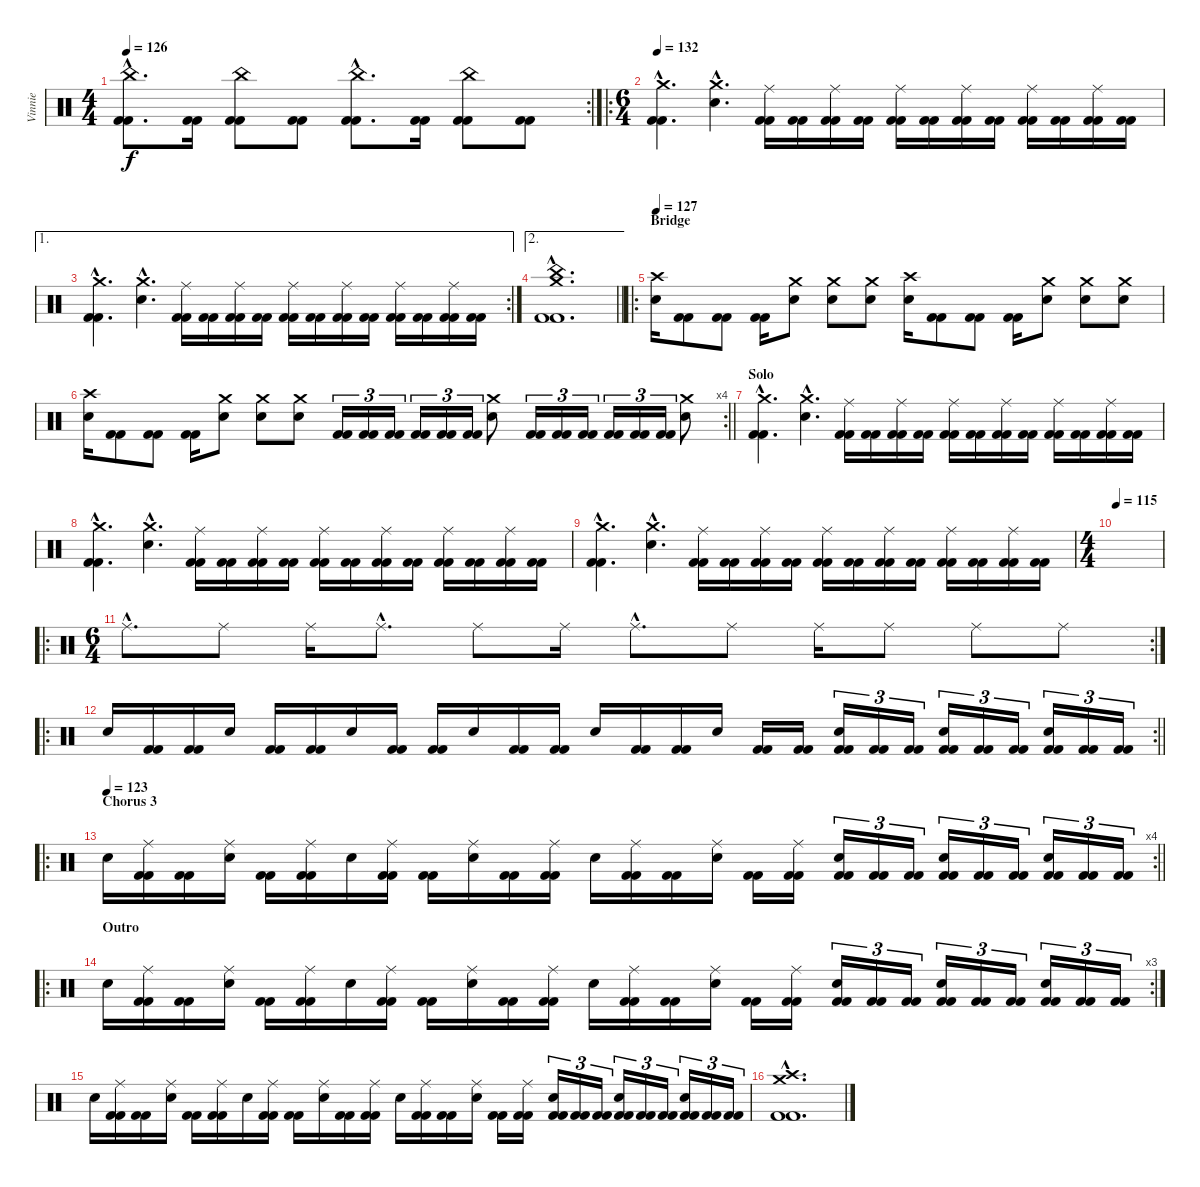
\track ("Vinnie" "Vinnie") {instrument percussion}
\staff {score}
\articulation defaults
\rc 2
\ts (4 4)
\tempo 126
\clef neutral
\ks c
("China (hit)"{hac} "Kick (hit) 2"{hac} "Kick (hit) 2"{hac}).8{d dy f} ("Kick (hit) 2" "Kick (hit) 2").16 ("China (hit)" "Kick (hit) 2" "Kick (hit) 2").8 ("Kick (hit) 2" "Kick (hit) 2").8 ("China (hit)"{hac} "Kick (hit) 2"{hac} "Kick (hit) 2"{hac}).8{d} ("Kick (hit) 2" "Kick (hit) 2").16 ("China (hit)" "Kick (hit) 2" "Kick (hit) 2").8 ("Kick (hit) 2" "Kick (hit) 2").8 |
\ro
\ts (6 4)
\tempo 132
("Crash medium (hit)"{hac} "Kick (hit) 2"{hac} "Kick (hit) 2"{hac}).4{d} ("Crash medium (hit)"{hac} "Snare (hit) 2"{hac}).4{d} ("Ride (middle)" "Kick (hit) 2" "Kick (hit) 2").16 ("Kick (hit) 2" "Kick (hit) 2").16 ("Ride (middle)" "Kick (hit) 2" "Kick (hit) 2").16 ("Kick (hit) 2" "Kick (hit) 2").16 ("Ride (middle)" "Kick (hit) 2" "Kick (hit) 2").16 ("Kick (hit) 2" "Kick (hit) 2").16 ("Ride (middle)" "Kick (hit) 2" "Kick (hit) 2").16 ("Kick (hit) 2" "Kick (hit) 2").16 ("Ride (middle)" "Kick (hit) 2" "Kick (hit) 2").16 ("Kick (hit) 2" "Kick (hit) 2").16 ("Ride (middle)" "Kick (hit) 2" "Kick (hit) 2").16 ("Kick (hit) 2" "Kick (hit) 2").16 |
\ae 1
\rc 2
("Crash medium (hit)"{hac} "Kick (hit) 2"{hac} "Kick (hit) 2"{hac}).4{d} ("Crash medium (hit)"{hac} "Snare (hit) 2"{hac}).4{d} ("Ride (middle)" "Kick (hit) 2" "Kick (hit) 2").16 ("Kick (hit) 2" "Kick (hit) 2").16 ("Ride (middle)" "Kick (hit) 2" "Kick (hit) 2").16 ("Kick (hit) 2" "Kick (hit) 2").16 ("Ride (middle)" "Kick (hit) 2" "Kick (hit) 2").16 ("Kick (hit) 2" "Kick (hit) 2").16 ("Ride (middle)" "Kick (hit) 2" "Kick (hit) 2").16 ("Kick (hit) 2" "Kick (hit) 2").16 ("Ride (middle)" "Kick (hit) 2" "Kick (hit) 2").16 ("Kick (hit) 2" "Kick (hit) 2").16 ("Ride (middle)" "Kick (hit) 2" "Kick (hit) 2").16 ("Kick (hit) 2" "Kick (hit) 2").16 |
\ae 2
\barLineRight lightlight
("China (hit)"{hac} "Crash medium (hit)"{hac} "Kick (hit) 2"{hac} "Kick (hit) 2"{hac}).1{d} |
\ro
\section ("" "Bridge")
\tempo 127
("Crash high (hit)" "Snare (hit) 2").16 ("Kick (hit) 2" "Kick (hit) 2").8 ("Kick (hit) 2" "Kick (hit) 2").8 ("Kick (hit) 2" "Kick (hit) 2").16 ("Crash medium (hit)" "Snare (hit) 2").8 ("Crash medium (hit)" "Snare (hit) 2").8 ("Crash medium (hit)" "Snare (hit) 2").8 ("Crash high (hit)" "Snare (hit) 2").16 ("Kick (hit) 2" "Kick (hit) 2").8 ("Kick (hit) 2" "Kick (hit) 2").8 ("Kick (hit) 2" "Kick (hit) 2").16 ("Crash medium (hit)" "Snare (hit) 2").8 ("Crash medium (hit)" "Snare (hit) 2").8 ("Crash medium (hit)" "Snare (hit) 2").8 |
\rc 4
\barLineRight lightlight
("Crash high (hit)" "Snare (hit) 2").16 ("Kick (hit) 2" "Kick (hit) 2").8 ("Kick (hit) 2" "Kick (hit) 2").8 ("Kick (hit) 2" "Kick (hit) 2").16 ("Crash medium (hit)" "Snare (hit) 2").8 ("Crash medium (hit)" "Snare (hit) 2").8 ("Crash medium (hit)" "Snare (hit) 2").8 ("Kick (hit) 2" "Kick (hit) 2").16{tu (3 2)} ("Kick (hit) 2" "Kick (hit) 2").16{tu (3 2)} ("Kick (hit) 2" "Kick (hit) 2").16{tu (3 2)} ("Kick (hit) 2" "Kick (hit) 2").16{tu (3 2)} ("Kick (hit) 2" "Kick (hit) 2").16{tu (3 2)} ("Kick (hit) 2" "Kick (hit) 2").16{tu (3 2)} ("Crash medium (hit)" "Snare (hit) 2").8 ("Kick (hit) 2" "Kick (hit) 2").16{tu (3 2)} ("Kick (hit) 2" "Kick (hit) 2").16{tu (3 2)} ("Kick (hit) 2" "Kick (hit) 2").16{tu (3 2)} ("Kick (hit) 2" "Kick (hit) 2").16{tu (3 2)} ("Kick (hit) 2" "Kick (hit) 2").16{tu (3 2)} ("Kick (hit) 2" "Kick (hit) 2").16{tu (3 2)} ("Crash medium (hit)" "Snare (hit) 2").8 |
\section ("" "Solo")
("Crash medium (hit)"{hac} "Kick (hit) 2"{hac} "Kick (hit) 2"{hac}).4{d} ("Crash medium (hit)"{hac} "Snare (hit) 2"{hac}).4{d} ("Ride (middle)" "Kick (hit) 2" "Kick (hit) 2").16 ("Kick (hit) 2" "Kick (hit) 2").16 ("Ride (middle)" "Kick (hit) 2" "Kick (hit) 2").16 ("Kick (hit) 2" "Kick (hit) 2").16 ("Ride (middle)" "Kick (hit) 2" "Kick (hit) 2").16 ("Kick (hit) 2" "Kick (hit) 2").16 ("Ride (middle)" "Kick (hit) 2" "Kick (hit) 2").16 ("Kick (hit) 2" "Kick (hit) 2").16 ("Ride (middle)" "Kick (hit) 2" "Kick (hit) 2").16 ("Kick (hit) 2" "Kick (hit) 2").16 ("Ride (middle)" "Kick (hit) 2" "Kick (hit) 2").16 ("Kick (hit) 2" "Kick (hit) 2").16 |
("Crash medium (hit)"{hac} "Kick (hit) 2"{hac} "Kick (hit) 2"{hac}).4{d} ("Crash medium (hit)"{hac} "Snare (hit) 2"{hac}).4{d} ("Ride (middle)" "Kick (hit) 2" "Kick (hit) 2").16 ("Kick (hit) 2" "Kick (hit) 2").16 ("Ride (middle)" "Kick (hit) 2" "Kick (hit) 2").16 ("Kick (hit) 2" "Kick (hit) 2").16 ("Ride (middle)" "Kick (hit) 2" "Kick (hit) 2").16 ("Kick (hit) 2" "Kick (hit) 2").16 ("Ride (middle)" "Kick (hit) 2" "Kick (hit) 2").16 ("Kick (hit) 2" "Kick (hit) 2").16 ("Ride (middle)" "Kick (hit) 2" "Kick (hit) 2").16 ("Kick (hit) 2" "Kick (hit) 2").16 ("Ride (middle)" "Kick (hit) 2" "Kick (hit) 2").16 ("Kick (hit) 2" "Kick (hit) 2").16 |
("Crash medium (hit)"{hac} "Kick (hit) 2"{hac} "Kick (hit) 2"{hac}).4{d} ("Crash medium (hit)"{hac} "Snare (hit) 2"{hac}).4{d} ("Ride (middle)" "Kick (hit) 2" "Kick (hit) 2").16 ("Kick (hit) 2" "Kick (hit) 2").16 ("Ride (middle)" "Kick (hit) 2" "Kick (hit) 2").16 ("Kick (hit) 2" "Kick (hit) 2").16 ("Ride (middle)" "Kick (hit) 2" "Kick (hit) 2").16 ("Kick (hit) 2" "Kick (hit) 2").16 ("Ride (middle)" "Kick (hit) 2" "Kick (hit) 2").16 ("Kick (hit) 2" "Kick (hit) 2").16 ("Ride (middle)" "Kick (hit) 2" "Kick (hit) 2").16 ("Kick (hit) 2" "Kick (hit) 2").16 ("Ride (middle)" "Kick (hit) 2" "Kick (hit) 2").16 ("Kick (hit) 2" "Kick (hit) 2").16 |
\ts (4 4)
\tempo 115
|
\ro
\rc 2
\ts (6 4)
"Ride (middle)"{hac}.8{d} "Ride (middle)".8 "Ride (middle)".16 "Ride (middle)"{hac}.8{d} "Ride (middle)".8 "Ride (middle)".16 "Ride (middle)"{hac}.8{d} "Ride (middle)".8 "Ride (middle)".16 "Ride (middle)".8 "Ride (middle)".8 "Ride (middle)".8 |
\ro
\rc 2
\barLineRight lightlight "Snare (hit) 2".16
("Kick (hit) 2" "Kick (hit) 2").16 ("Kick (hit) 2" "Kick (hit) 2").16 "Snare (hit) 2".16 ("Kick (hit) 2" "Kick (hit) 2").16 ("Kick (hit) 2" "Kick (hit) 2").16 "Snare (hit) 2".16 ("Kick (hit) 2" "Kick (hit) 2").16 ("Kick (hit) 2" "Kick (hit) 2").16 "Snare (hit) 2".16 ("Kick (hit) 2" "Kick (hit) 2").16 ("Kick (hit) 2" "Kick (hit) 2").16 "Snare (hit) 2".16 ("Kick (hit) 2" "Kick (hit) 2").16 ("Kick (hit) 2" "Kick (hit) 2").16 "Snare (hit) 2".16 ("Kick (hit) 2" "Kick (hit) 2").16 ("Kick (hit) 2" "Kick (hit) 2").16 ("Snare (hit) 2" "Kick (hit) 2" "Kick (hit) 2").16{tu (3 2)} ("Kick (hit) 2" "Kick (hit) 2").16{tu (3 2)} ("Kick (hit) 2" "Kick (hit) 2").16{tu (3 2)} ("Snare (hit) 2" "Kick (hit) 2" "Kick (hit) 2").16{tu (3 2)} ("Kick (hit) 2" "Kick (hit) 2").16{tu (3 2)} ("Kick (hit) 2" "Kick (hit) 2").16{tu (3 2)} ("Snare (hit) 2" "Kick (hit) 2" "Kick (hit) 2").16{tu (3 2)} ("Kick (hit) 2" "Kick (hit) 2").16{tu (3 2)} ("Kick (hit) 2" "Kick (hit) 2").16{tu (3 2)} |
\ro
\rc 4
\section ("" "Chorus 3")
\tempo 123
\barLineRight lightlight "Snare (hit) 2".16
("Ride (middle)" "Kick (hit) 2" "Kick (hit) 2").16 ("Kick (hit) 2" "Kick (hit) 2").16 ("Ride (middle)" "Snare (hit) 2").16 ("Kick (hit) 2" "Kick (hit) 2").16 ("Ride (middle)" "Kick (hit) 2" "Kick (hit) 2").16 "Snare (hit) 2".16 ("Ride (middle)" "Kick (hit) 2" "Kick (hit) 2").16 ("Kick (hit) 2" "Kick (hit) 2").16 ("Ride (middle)" "Snare (hit) 2").16 ("Kick (hit) 2" "Kick (hit) 2").16 ("Ride (middle)" "Kick (hit) 2" "Kick (hit) 2").16 "Snare (hit) 2".16 ("Ride (middle)" "Kick (hit) 2" "Kick (hit) 2").16 ("Kick (hit) 2" "Kick (hit) 2").16 ("Ride (middle)" "Snare (hit) 2").16 ("Kick (hit) 2" "Kick (hit) 2").16 ("Ride (middle)" "Kick (hit) 2" "Kick (hit) 2").16 ("Snare (hit) 2" "Kick (hit) 2" "Kick (hit) 2").16{tu (3 2)} ("Kick (hit) 2" "Kick (hit) 2").16{tu (3 2)} ("Kick (hit) 2" "Kick (hit) 2").16{tu (3 2)} ("Snare (hit) 2" "Kick (hit) 2" "Kick (hit) 2").16{tu (3 2)} ("Kick (hit) 2" "Kick (hit) 2").16{tu (3 2)} ("Kick (hit) 2" "Kick (hit) 2").16{tu (3 2)} ("Snare (hit) 2" "Kick (hit) 2" "Kick (hit) 2").16{tu (3 2)} ("Kick (hit) 2" "Kick (hit) 2").16{tu (3 2)} ("Kick (hit) 2" "Kick (hit) 2").16{tu (3 2)} |
\ro
\rc 3
\section ("" "Outro")
"Snare (hit) 2".16 ("Ride (middle)" "Kick (hit) 2" "Kick (hit) 2").16 ("Kick (hit) 2" "Kick (hit) 2").16 ("Ride (middle)" "Snare (hit) 2").16 ("Kick (hit) 2" "Kick (hit) 2").16 ("Ride (middle)" "Kick (hit) 2" "Kick (hit) 2").16 "Snare (hit) 2".16 ("Ride (middle)" "Kick (hit) 2" "Kick (hit) 2").16 ("Kick (hit) 2" "Kick (hit) 2").16 ("Ride (middle)" "Snare (hit) 2").16 ("Kick (hit) 2" "Kick (hit) 2").16 ("Ride (middle)" "Kick (hit) 2" "Kick (hit) 2").16 "Snare (hit) 2".16 ("Ride (middle)" "Kick (hit) 2" "Kick (hit) 2").16 ("Kick (hit) 2" "Kick (hit) 2").16 ("Ride (middle)" "Snare (hit) 2").16 ("Kick (hit) 2" "Kick (hit) 2").16 ("Ride (middle)" "Kick (hit) 2" "Kick (hit) 2").16 ("Snare (hit) 2" "Kick (hit) 2" "Kick (hit) 2").16{tu (3 2)} ("Kick (hit) 2" "Kick (hit) 2").16{tu (3 2)} ("Kick (hit) 2" "Kick (hit) 2").16{tu (3 2)} ("Snare (hit) 2" "Kick (hit) 2" "Kick (hit) 2").16{tu (3 2)} ("Kick (hit) 2" "Kick (hit) 2").16{tu (3 2)} ("Kick (hit) 2" "Kick (hit) 2").16{tu (3 2)} ("Snare (hit) 2" "Kick (hit) 2" "Kick (hit) 2").16{tu (3 2)} ("Kick (hit) 2" "Kick (hit) 2").16{tu (3 2)} ("Kick (hit) 2" "Kick (hit) 2").16{tu (3 2)} |
"Snare (hit) 2".16 ("Ride (middle)" "Kick (hit) 2" "Kick (hit) 2").16 ("Kick (hit) 2" "Kick (hit) 2").16 ("Ride (middle)" "Snare (hit) 2").16 ("Kick (hit) 2" "Kick (hit) 2").16 ("Ride (middle)" "Kick (hit) 2" "Kick (hit) 2").16 "Snare (hit) 2".16 ("Ride (middle)" "Kick (hit) 2" "Kick (hit) 2").16 ("Kick (hit) 2" "Kick (hit) 2").16 ("Ride (middle)" "Snare (hit) 2").16 ("Kick (hit) 2" "Kick (hit) 2").16 ("Ride (middle)" "Kick (hit) 2" "Kick (hit) 2").16 "Snare (hit) 2".16 ("Ride (middle)" "Kick (hit) 2" "Kick (hit) 2").16 ("Kick (hit) 2" "Kick (hit) 2").16 ("Ride (middle)" "Snare (hit) 2").16 ("Kick (hit) 2" "Kick (hit) 2").16 ("Ride (middle)" "Kick (hit) 2" "Kick (hit) 2").16 ("Snare (hit) 2" "Kick (hit) 2" "Kick (hit) 2").16{tu (3 2)} ("Kick (hit) 2" "Kick (hit) 2").16{tu (3 2)} ("Kick (hit) 2" "Kick (hit) 2").16{tu (3 2)} ("Snare (hit) 2" "Kick (hit) 2" "Kick (hit) 2").16{tu (3 2)} ("Kick (hit) 2" "Kick (hit) 2").16{tu (3 2)} ("Kick (hit) 2" "Kick (hit) 2").16{tu (3 2)} ("Snare (hit) 2" "Kick (hit) 2" "Kick (hit) 2").16{tu (3 2)} ("Kick (hit) 2" "Kick (hit) 2").16{tu (3 2)} ("Kick (hit) 2" "Kick (hit) 2").16{tu (3 2)} |
("Crash high (hit)"{hac} "Crash medium (hit)"{hac} "Kick (hit) 2"{hac} "Kick (hit) 2"{hac}).1{d}
